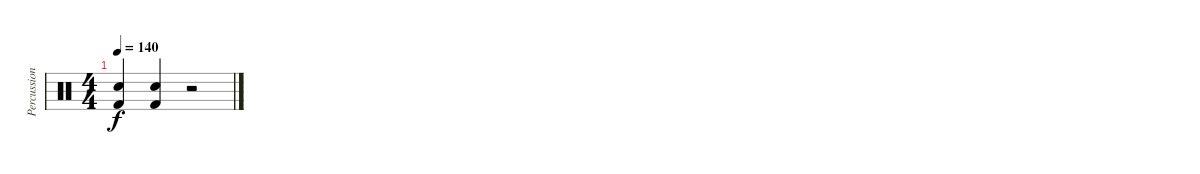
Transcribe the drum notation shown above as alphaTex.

\track ("Percussion (LP III)" "Percussion") {instrument percussion}
\staff {score}
\articulation defaults
\ts (4 4)
\tempo 140
\clef neutral
\ks c
("Snare (hit) 2" "Kick (hit) 2").4{dy f} ("Snare (hit) 2" "Kick (hit) 2").4 r.2
